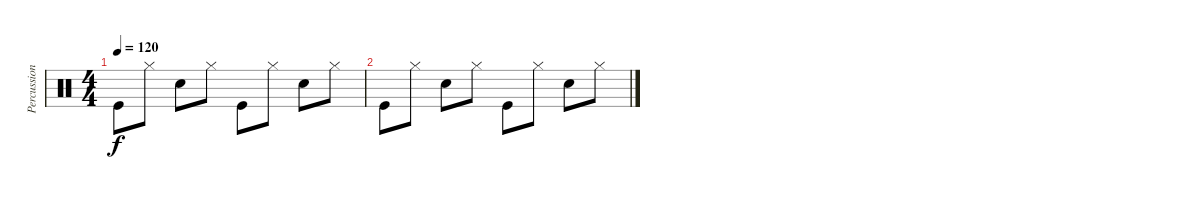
\track ("Percussion" "Percussion") {instrument percussion}
\staff {score}
\articulation defaults
\ts (4 4)
\tempo 120
\clef neutral
\ks c "Kick (hit)".8{dy f} "Hi-Hat (closed)".8 "Snare (hit) 2".8 "Hi-Hat (closed)".8 "Kick (hit)".8 "Hi-Hat (closed)".8 "Snare (hit) 2".8 "Hi-Hat (closed)".8
|
"Kick (hit)".8 "Hi-Hat (closed)".8 "Snare (hit) 2".8 "Hi-Hat (closed)".8 "Kick (hit)".8 "Hi-Hat (closed)".8 "Snare (hit) 2".8 "Hi-Hat (closed)".8
